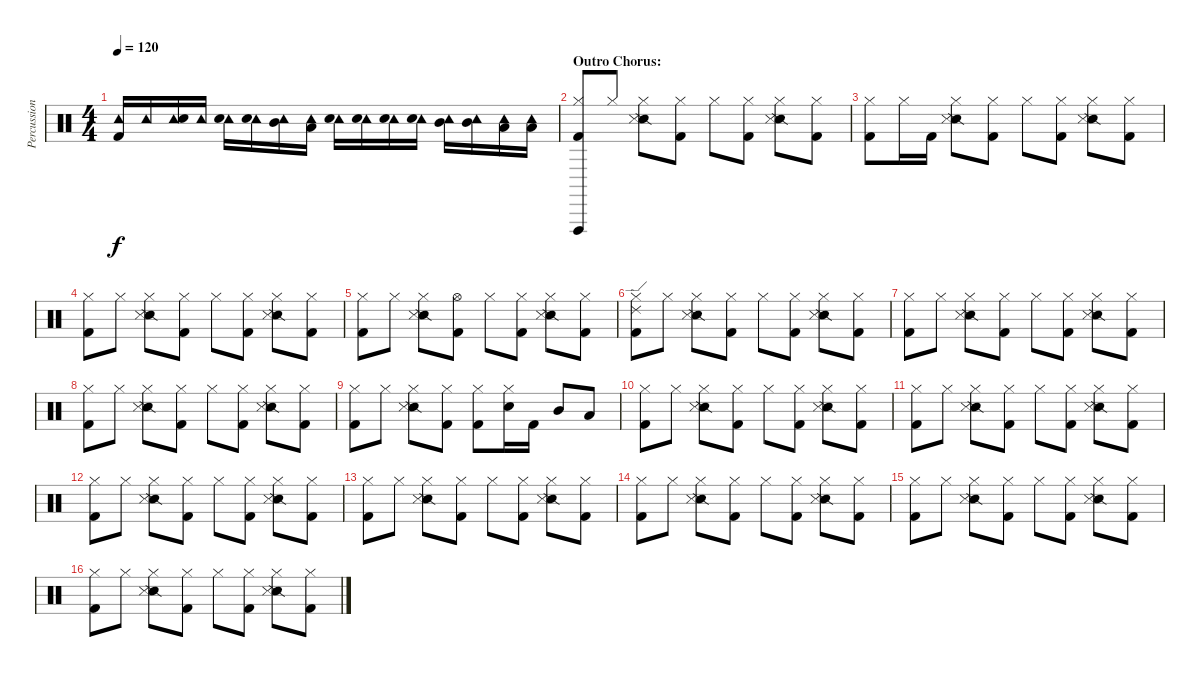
\track ("Percussion" "Percussion") {instrument percussion}
\staff {score}
\articulation defaults
\ts (4 4)
\tempo 120
\clef neutral
\ks c
("Tambourine (hit)" "Kick (hit) 2").16{dy f} "Tambourine (hit)".16 ("Tambourine (hit)" "Electric Snare (hit)").16 "Tambourine (hit)".16 ("Tambourine (hit)" "Electric Snare (hit)").16 ("Tambourine (hit)" "Electric Snare (hit)").16 ("Tambourine (hit)" "Mid Tom (hit)").16 ("Tambourine (hit)" "Low Tom (hit)").16 ("Tambourine (hit)" "Electric Snare (hit)").16 ("Tambourine (hit)" "Electric Snare (hit)").16 ("Tambourine (hit)" "Electric Snare (hit)").16 ("Tambourine (hit)" "Electric Snare (hit)").16 ("Tambourine (hit)" "Mid Tom (hit)").16 ("Tambourine (hit)" "Mid Tom (hit)").16 ("Tambourine (hit)" "Low Tom (hit)").16 ("Tambourine (hit)" "Low Tom (hit)").16 |
\section ("" "Outro Chorus:")
("Hi-Hat (closed)" "Vibraslap (hit)" "Kick (hit) 2").8 "Hi-Hat (closed)".8 ("Hi-Hat (closed)" "Snare (side stick) 2" "Snare (side stick) 3").8 ("Hi-Hat (closed)" "Kick (hit) 2").8 "Hi-Hat (closed)".8 ("Hi-Hat (closed)" "Kick (hit) 2").8 ("Hi-Hat (closed)" "Snare (side stick) 2" "Snare (side stick) 3").8 ("Hi-Hat (closed)" "Kick (hit) 2").8 |
("Hi-Hat (closed)" "Kick (hit) 2").8 "Hi-Hat (closed)".16 "Kick (hit) 2".16 ("Hi-Hat (closed)" "Snare (side stick) 2" "Snare (side stick) 3").8 ("Hi-Hat (closed)" "Kick (hit) 2").8 "Hi-Hat (closed)".8 ("Hi-Hat (closed)" "Kick (hit) 2").8 ("Hi-Hat (closed)" "Snare (side stick) 2" "Snare (side stick) 3").8 ("Hi-Hat (closed)" "Kick (hit) 2").8 |
("Hi-Hat (closed)" "Kick (hit) 2").8 "Hi-Hat (closed)".8 ("Hi-Hat (closed)" "Snare (side stick) 2" "Snare (side stick) 3").8 ("Hi-Hat (closed)" "Kick (hit) 2").8 "Hi-Hat (closed)".8 ("Hi-Hat (closed)" "Kick (hit) 2").8 ("Hi-Hat (closed)" "Snare (side stick) 2" "Snare (side stick) 3").8 ("Hi-Hat (closed)" "Kick (hit) 2").8 |
("Hi-Hat (closed)" "Kick (hit) 2").8 "Hi-Hat (closed)".8 ("Hi-Hat (closed)" "Snare (side stick) 2" "Snare (side stick) 3").8 ("Hi-Hat (open)" "Kick (hit) 2").8 "Hi-Hat (closed)".8 ("Hi-Hat (closed)" "Kick (hit) 2").8 ("Hi-Hat (closed)" "Snare (side stick) 2" "Snare (side stick) 3").8 ("Hi-Hat (closed)" "Kick (hit) 2").8 |
("Hi-Hat (closed)" "Ride (edge) 2" "Kick (hit) 2").8 "Hi-Hat (closed)".8 ("Hi-Hat (closed)" "Snare (side stick) 2" "Snare (side stick) 3").8 ("Hi-Hat (closed)" "Kick (hit) 2").8 "Hi-Hat (closed)".8 ("Hi-Hat (closed)" "Kick (hit) 2").8 ("Hi-Hat (closed)" "Snare (side stick) 2" "Snare (side stick) 3").8 ("Hi-Hat (closed)" "Kick (hit) 2").8 |
("Hi-Hat (closed)" "Kick (hit) 2").8 "Hi-Hat (closed)".8 ("Hi-Hat (closed)" "Snare (side stick) 2" "Snare (side stick) 3").8 ("Hi-Hat (closed)" "Kick (hit) 2").8 "Hi-Hat (closed)".8 ("Hi-Hat (closed)" "Kick (hit) 2").8 ("Hi-Hat (closed)" "Snare (side stick) 2" "Snare (side stick) 3").8 ("Hi-Hat (closed)" "Kick (hit) 2").8 |
("Hi-Hat (closed)" "Kick (hit) 2").8 "Hi-Hat (closed)".8 ("Hi-Hat (closed)" "Snare (side stick) 2" "Snare (side stick) 3").8 ("Hi-Hat (closed)" "Kick (hit) 2").8 "Hi-Hat (closed)".8 ("Hi-Hat (closed)" "Kick (hit) 2").8 ("Hi-Hat (closed)" "Snare (side stick) 2" "Snare (side stick) 3").8 ("Hi-Hat (closed)" "Kick (hit) 2").8 |
("Hi-Hat (closed)" "Kick (hit) 2").8 "Hi-Hat (closed)".8 ("Hi-Hat (closed)" "Snare (side stick) 2" "Snare (side stick) 3").8 ("Hi-Hat (closed)" "Kick (hit) 2").8 ("Hi-Hat (closed)" "Kick (hit) 2").8 ("Hi-Hat (closed)" "Electric Snare (hit)").16 "Kick (hit) 2".16 "Mid Tom (hit)".8 "Low Tom (hit)".8 |
("Hi-Hat (closed)" "Kick (hit) 2").8 "Hi-Hat (closed)".8 ("Hi-Hat (closed)" "Snare (side stick) 2" "Snare (side stick) 3").8 ("Hi-Hat (closed)" "Kick (hit) 2").8 "Hi-Hat (closed)".8 ("Hi-Hat (closed)" "Kick (hit) 2").8 ("Hi-Hat (closed)" "Snare (side stick) 2" "Snare (side stick) 3").8 ("Hi-Hat (closed)" "Kick (hit) 2").8 |
("Hi-Hat (closed)" "Kick (hit) 2").8 "Hi-Hat (closed)".8 ("Hi-Hat (closed)" "Snare (side stick) 2" "Snare (side stick) 3").8 ("Hi-Hat (closed)" "Kick (hit) 2").8 "Hi-Hat (closed)".8 ("Hi-Hat (closed)" "Kick (hit) 2").8 ("Hi-Hat (closed)" "Snare (side stick) 2" "Snare (side stick) 3").8 ("Hi-Hat (closed)" "Kick (hit) 2").8 |
("Hi-Hat (closed)" "Kick (hit) 2").8 "Hi-Hat (closed)".8 ("Hi-Hat (closed)" "Snare (side stick) 2" "Snare (side stick) 3").8 ("Hi-Hat (closed)" "Kick (hit) 2").8 "Hi-Hat (closed)".8 ("Hi-Hat (closed)" "Kick (hit) 2").8 ("Hi-Hat (closed)" "Snare (side stick) 2" "Snare (side stick) 3").8 ("Hi-Hat (closed)" "Kick (hit) 2").8 |
("Hi-Hat (closed)" "Kick (hit) 2").8 "Hi-Hat (closed)".8 ("Hi-Hat (closed)" "Snare (side stick) 2" "Snare (side stick) 3").8 ("Hi-Hat (closed)" "Kick (hit) 2").8 "Hi-Hat (closed)".8 ("Hi-Hat (closed)" "Kick (hit) 2").8 ("Hi-Hat (closed)" "Snare (side stick) 2" "Snare (side stick) 3").8 ("Hi-Hat (closed)" "Kick (hit) 2").8 |
("Hi-Hat (closed)" "Kick (hit) 2").8 "Hi-Hat (closed)".8 ("Hi-Hat (closed)" "Snare (side stick) 2" "Snare (side stick) 3").8 ("Hi-Hat (closed)" "Kick (hit) 2").8 "Hi-Hat (closed)".8 ("Hi-Hat (closed)" "Kick (hit) 2").8 ("Hi-Hat (closed)" "Snare (side stick) 2" "Snare (side stick) 3").8 ("Hi-Hat (closed)" "Kick (hit) 2").8 |
("Hi-Hat (closed)" "Kick (hit) 2").8 "Hi-Hat (closed)".8 ("Hi-Hat (closed)" "Snare (side stick) 2" "Snare (side stick) 3").8 ("Hi-Hat (closed)" "Kick (hit) 2").8 "Hi-Hat (closed)".8 ("Hi-Hat (closed)" "Kick (hit) 2").8 ("Hi-Hat (closed)" "Snare (side stick) 2" "Snare (side stick) 3").8 ("Hi-Hat (closed)" "Kick (hit) 2").8 |
("Hi-Hat (closed)" "Kick (hit) 2").8 "Hi-Hat (closed)".8 ("Hi-Hat (closed)" "Snare (side stick) 2" "Snare (side stick) 3").8 ("Hi-Hat (closed)" "Kick (hit) 2").8 "Hi-Hat (closed)".8 ("Hi-Hat (closed)" "Kick (hit) 2").8 ("Hi-Hat (closed)" "Snare (side stick) 2" "Snare (side stick) 3").8 ("Hi-Hat (closed)" "Kick (hit) 2").8
